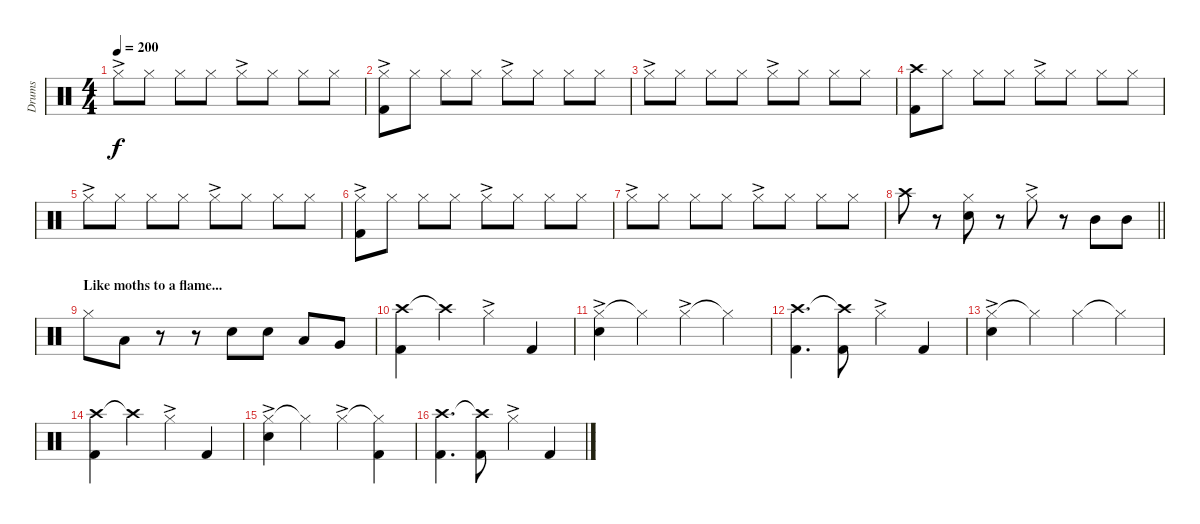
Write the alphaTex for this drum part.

\track ("Drums" "Drums") {instrument percussion}
\staff {score}
\articulation defaults
\ts (4 4)
\tempo 200
\clef neutral
\ks c "Hi-Hat (closed)"{ac}.8{dy f} "Hi-Hat (closed)".8 "Hi-Hat (closed)".8 "Hi-Hat (closed)".8 "Hi-Hat (closed)"{ac}.8 "Hi-Hat (closed)".8 "Hi-Hat (closed)".8 "Hi-Hat (closed)".8
|
("Hi-Hat (closed)"{ac} "Kick (hit) 2").8 "Hi-Hat (closed)".8 "Hi-Hat (closed)".8 "Hi-Hat (closed)".8 "Hi-Hat (closed)"{ac}.8 "Hi-Hat (closed)".8 "Hi-Hat (closed)".8 "Hi-Hat (closed)".8 |
"Hi-Hat (closed)"{ac}.8 "Hi-Hat (closed)".8 "Hi-Hat (closed)".8 "Hi-Hat (closed)".8 "Hi-Hat (closed)"{ac}.8 "Hi-Hat (closed)".8 "Hi-Hat (closed)".8 "Hi-Hat (closed)".8 |
("Crash high (hit)" "Kick (hit) 2").8 "Hi-Hat (closed)".8 "Hi-Hat (closed)".8 "Hi-Hat (closed)".8 "Hi-Hat (closed)"{ac}.8 "Hi-Hat (closed)".8 "Hi-Hat (closed)".8 "Hi-Hat (closed)".8 |
"Hi-Hat (closed)"{ac}.8 "Hi-Hat (closed)".8 "Hi-Hat (closed)".8 "Hi-Hat (closed)".8 "Hi-Hat (closed)"{ac}.8 "Hi-Hat (closed)".8 "Hi-Hat (closed)".8 "Hi-Hat (closed)".8 |
("Hi-Hat (closed)"{ac} "Kick (hit) 2").8 "Hi-Hat (closed)".8 "Hi-Hat (closed)".8 "Hi-Hat (closed)".8 "Hi-Hat (closed)"{ac}.8 "Hi-Hat (closed)".8 "Hi-Hat (closed)".8 "Hi-Hat (closed)".8 |
"Hi-Hat (closed)"{ac}.8 "Hi-Hat (closed)".8 "Hi-Hat (closed)".8 "Hi-Hat (closed)".8 "Hi-Hat (closed)"{ac}.8 "Hi-Hat (closed)".8 "Hi-Hat (closed)".8 "Hi-Hat (closed)".8 |
\barLineRight lightlight "Crash high (hit)".8
r.8 ("Hi-Hat (closed)" "Snare (hit) 2").8 r.8 "Hi-Hat (closed)"{ac}.8 r.8 "Mid Tom (hit)".8 "Mid Tom (hit)".8 |
\section ("" "Like moths to a flame...")
"Hi-Hat (closed)".8 "Low Tom (hit)".8 r.8 r.8 "Snare (hit) 2".8 "Snare (hit) 2".8 "Low Tom (hit)".8 "Very Low Tom (hit)".8 |
("Crash high (hit)" "Kick (hit) 2").4 "Crash high (hit)"{t}.4 "Hi-Hat (closed)"{ac}.4 "Kick (hit) 2".4 |
("Hi-Hat (closed)"{ac} "Snare (hit) 2").4 "Hi-Hat (closed)"{t}.4 "Hi-Hat (closed)"{ac}.4 "Hi-Hat (closed)"{t}.4 |
("Crash high (hit)" "Kick (hit) 2").4{d} ("Crash high (hit)"{t} "Kick (hit) 2").8 "Hi-Hat (closed)"{ac}.4 "Kick (hit) 2".4 |
("Hi-Hat (closed)"{ac} "Snare (hit) 2").4 "Hi-Hat (closed)"{t}.4 "Hi-Hat (closed)".4 "Hi-Hat (closed)"{t}.4 |
("Crash high (hit)" "Kick (hit) 2").4 "Crash high (hit)"{t}.4 "Hi-Hat (closed)"{ac}.4 "Kick (hit) 2".4 |
("Hi-Hat (closed)"{ac} "Snare (hit) 2").4 "Hi-Hat (closed)"{t}.4 "Hi-Hat (closed)"{ac}.4 ("Hi-Hat (closed)"{t} "Kick (hit) 2").4 |
("Crash high (hit)" "Kick (hit) 2").4{d} ("Crash high (hit)"{t} "Kick (hit) 2").8 "Hi-Hat (closed)"{ac}.4 "Kick (hit) 2".4
